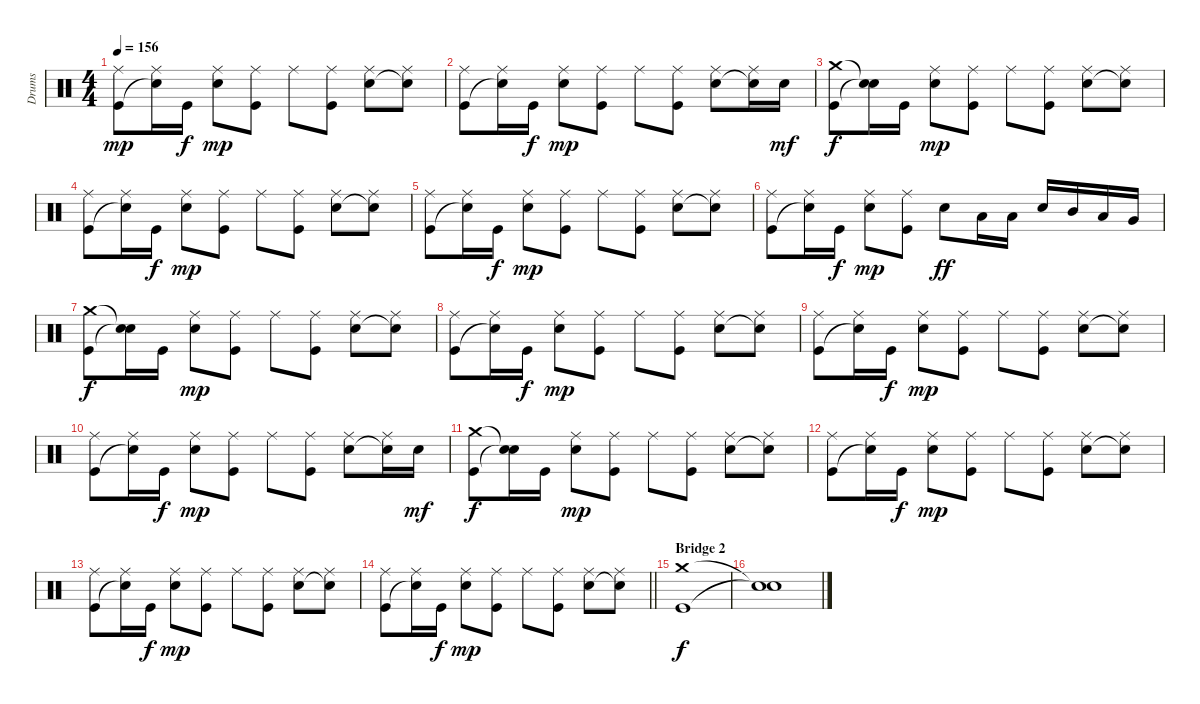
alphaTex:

\track ("Drums" "Drums") {instrument percussion}
\staff {score}
\articulation defaults
\ts (4 4)
\tempo 156
\clef neutral
\ks c
("Ride (middle)" "Kick (hit)").8{dy mp} ("Ride (middle)" "Snare (hit)"{t}).16 "Kick (hit)".16{dy f} ("Ride (middle)" "Snare (hit) 2").8{dy mp} ("Ride (middle)" "Kick (hit)").8 "Ride (middle)".8 ("Ride (middle)" "Kick (hit)").8 ("Ride (middle)" "Snare (hit) 2").8 ("Ride (middle)" "Snare (hit)"{t}).8 |
("Ride (middle)" "Kick (hit)").8 ("Ride (middle)" "Snare (hit)"{t}).16 "Kick (hit)".16{dy f} ("Ride (middle)" "Snare (hit) 2").8{dy mp} ("Ride (middle)" "Kick (hit)").8 "Ride (middle)".8 ("Ride (middle)" "Kick (hit)").8 ("Ride (middle)" "Snare (hit) 2").8 ("Ride (middle)" "Snare (hit)"{t}).16 "Snare (hit) 2".16{dy mf} |
("Crash medium (hit)" "Kick (hit)").8{dy f} ("Snare (hit)"{t} "Snare (hit)"{t}).16 "Kick (hit)".16 ("Ride (middle)" "Snare (hit) 2").8{dy mp} ("Ride (middle)" "Kick (hit)").8 "Ride (middle)".8 ("Ride (middle)" "Kick (hit)").8 ("Ride (middle)" "Snare (hit) 2").8 ("Ride (middle)" "Snare (hit)"{t}).8 |
("Ride (middle)" "Kick (hit)").8 ("Ride (middle)" "Snare (hit)"{t}).16 "Kick (hit)".16{dy f} ("Ride (middle)" "Snare (hit) 2").8{dy mp} ("Ride (middle)" "Kick (hit)").8 "Ride (middle)".8 ("Ride (middle)" "Kick (hit)").8 ("Ride (middle)" "Snare (hit) 2").8 ("Ride (middle)" "Snare (hit)"{t}).8 |
("Ride (middle)" "Kick (hit)").8 ("Ride (middle)" "Snare (hit)"{t}).16 "Kick (hit)".16{dy f} ("Ride (middle)" "Snare (hit) 2").8{dy mp} ("Ride (middle)" "Kick (hit)").8 "Ride (middle)".8 ("Ride (middle)" "Kick (hit)").8 ("Ride (middle)" "Snare (hit) 2").8 ("Ride (middle)" "Snare (hit)"{t}).8 |
("Ride (middle)" "Kick (hit)").8 ("Ride (middle)" "Snare (hit)"{t}).16 "Kick (hit)".16{dy f} ("Ride (middle)" "Snare (hit) 2").8{dy mp} ("Ride (middle)" "Kick (hit)").8 "Snare (hit) 2".8{dy ff} "Low Floor Tom (hit)".16 "Low Floor Tom (hit)".16 "Snare (hit) 2".16 "Mid Tom (hit)".16 "Low Floor Tom (hit)".16 "Very Low Tom (hit)".16 |
("Crash medium (hit)" "Kick (hit)").8{dy f} ("Snare (hit)"{t} "Snare (hit)"{t}).16 "Kick (hit)".16 ("Ride (middle)" "Snare (hit) 2").8{dy mp} ("Ride (middle)" "Kick (hit)").8 "Ride (middle)".8 ("Ride (middle)" "Kick (hit)").8 ("Ride (middle)" "Snare (hit) 2").8 ("Ride (middle)" "Snare (hit)"{t}).8 |
("Ride (middle)" "Kick (hit)").8 ("Ride (middle)" "Snare (hit)"{t}).16 "Kick (hit)".16{dy f} ("Ride (middle)" "Snare (hit) 2").8{dy mp} ("Ride (middle)" "Kick (hit)").8 "Ride (middle)".8 ("Ride (middle)" "Kick (hit)").8 ("Ride (middle)" "Snare (hit) 2").8 ("Ride (middle)" "Snare (hit)"{t}).8 |
("Ride (middle)" "Kick (hit)").8 ("Ride (middle)" "Snare (hit)"{t}).16 "Kick (hit)".16{dy f} ("Ride (middle)" "Snare (hit) 2").8{dy mp} ("Ride (middle)" "Kick (hit)").8 "Ride (middle)".8 ("Ride (middle)" "Kick (hit)").8 ("Ride (middle)" "Snare (hit) 2").8 ("Ride (middle)" "Snare (hit)"{t}).8 |
("Ride (middle)" "Kick (hit)").8 ("Ride (middle)" "Snare (hit)"{t}).16 "Kick (hit)".16{dy f} ("Ride (middle)" "Snare (hit) 2").8{dy mp} ("Ride (middle)" "Kick (hit)").8 "Ride (middle)".8 ("Ride (middle)" "Kick (hit)").8 ("Ride (middle)" "Snare (hit) 2").8 ("Ride (middle)" "Snare (hit)"{t}).16 "Snare (hit) 2".16{dy mf} |
("Crash medium (hit)" "Kick (hit)").8{dy f} ("Snare (hit)"{t} "Snare (hit)"{t}).16 "Kick (hit)".16 ("Ride (middle)" "Snare (hit) 2").8{dy mp} ("Ride (middle)" "Kick (hit)").8 "Ride (middle)".8 ("Ride (middle)" "Kick (hit)").8 ("Ride (middle)" "Snare (hit) 2").8 ("Ride (middle)" "Snare (hit)"{t}).8 |
("Ride (middle)" "Kick (hit)").8 ("Ride (middle)" "Snare (hit)"{t}).16 "Kick (hit)".16{dy f} ("Ride (middle)" "Snare (hit) 2").8{dy mp} ("Ride (middle)" "Kick (hit)").8 "Ride (middle)".8 ("Ride (middle)" "Kick (hit)").8 ("Ride (middle)" "Snare (hit) 2").8 ("Ride (middle)" "Snare (hit)"{t}).8 |
("Ride (middle)" "Kick (hit)").8 ("Ride (middle)" "Snare (hit)"{t}).16 "Kick (hit)".16{dy f} ("Ride (middle)" "Snare (hit) 2").8{dy mp} ("Ride (middle)" "Kick (hit)").8 "Ride (middle)".8 ("Ride (middle)" "Kick (hit)").8 ("Ride (middle)" "Snare (hit) 2").8 ("Ride (middle)" "Snare (hit)"{t}).8 |
\barLineRight lightlight
("Ride (middle)" "Kick (hit)").8 ("Ride (middle)" "Snare (hit)"{t}).16 "Kick (hit)".16{dy f} ("Ride (middle)" "Snare (hit) 2").8{dy mp} ("Ride (middle)" "Kick (hit)").8 "Ride (middle)".8 ("Ride (middle)" "Kick (hit)").8 ("Ride (middle)" "Snare (hit) 2").8 ("Ride (middle)" "Snare (hit)"{t}).8 |
\section ("" "Bridge 2")
("Crash medium (hit)" "Kick (hit)").1{dy f} |
("Snare (hit)"{t} "Snare (hit)"{t}).1
